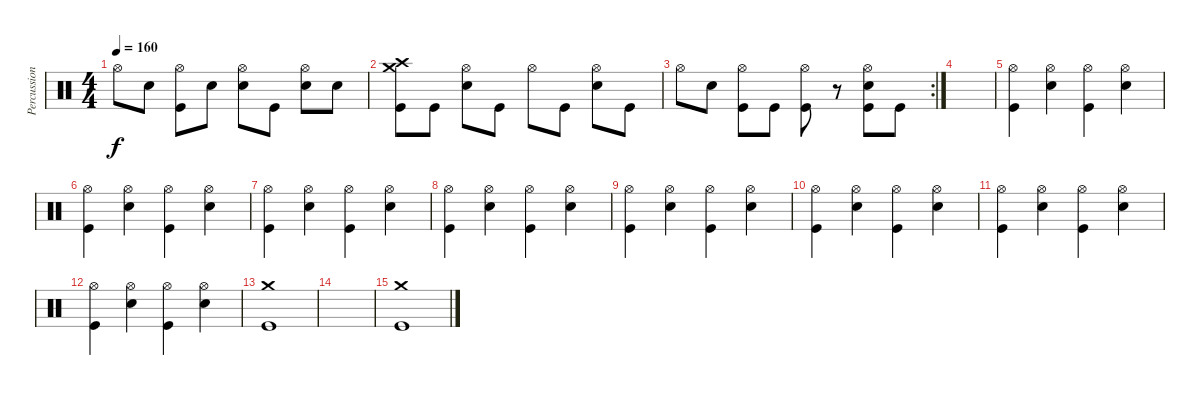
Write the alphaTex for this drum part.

\track ("Percussion" "Percussion") {instrument percussion}
\staff {score}
\articulation defaults
\ts (4 4)
\tempo 160
\clef neutral
\ks c "Hi-Hat (open)".8{dy f} "Snare (hit) 2".8
("Hi-Hat (open)" "Kick (hit)").8 "Snare (hit) 2".8 ("Hi-Hat (open)" "Snare (hit) 2").8 "Kick (hit)".8 ("Hi-Hat (open)" "Snare (hit) 2").8 "Snare (hit) 2".8 |
("Crash medium (hit)" "Crash high (hit)" "Kick (hit)").8 "Kick (hit)".8 ("Hi-Hat (open)" "Snare (hit) 2").8 "Kick (hit)".8 "Hi-Hat (open)".8 "Kick (hit)".8 ("Hi-Hat (open)" "Snare (hit) 2").8 "Kick (hit)".8 |
\rc 2 "Hi-Hat (open)".8 "Snare (hit) 2".8
("Hi-Hat (open)" "Kick (hit)").8 "Kick (hit)".8 ("Hi-Hat (open)" "Kick (hit)").8 r.8 ("Hi-Hat (open)" "Snare (hit) 2" "Kick (hit)").8 "Kick (hit)".8 |
|
("Hi-Hat (open)" "Kick (hit)").4 ("Hi-Hat (open)" "Snare (hit) 2").4 ("Hi-Hat (open)" "Kick (hit)").4 ("Hi-Hat (open)" "Snare (hit) 2").4 |
("Hi-Hat (open)" "Kick (hit)").4 ("Hi-Hat (open)" "Snare (hit) 2").4 ("Hi-Hat (open)" "Kick (hit)").4 ("Hi-Hat (open)" "Snare (hit) 2").4 |
("Hi-Hat (open)" "Kick (hit)").4 ("Hi-Hat (open)" "Snare (hit) 2").4 ("Hi-Hat (open)" "Kick (hit)").4 ("Hi-Hat (open)" "Snare (hit) 2").4 |
("Hi-Hat (open)" "Kick (hit)").4 ("Hi-Hat (open)" "Snare (hit) 2").4 ("Hi-Hat (open)" "Kick (hit)").4 ("Hi-Hat (open)" "Snare (hit) 2").4 |
("Hi-Hat (open)" "Kick (hit)").4 ("Hi-Hat (open)" "Snare (hit) 2").4 ("Hi-Hat (open)" "Kick (hit)").4 ("Hi-Hat (open)" "Snare (hit) 2").4 |
("Hi-Hat (open)" "Kick (hit)").4 ("Hi-Hat (open)" "Snare (hit) 2").4 ("Hi-Hat (open)" "Kick (hit)").4 ("Hi-Hat (open)" "Snare (hit) 2").4 |
("Hi-Hat (open)" "Kick (hit)").4 ("Hi-Hat (open)" "Snare (hit) 2").4 ("Hi-Hat (open)" "Kick (hit)").4 ("Hi-Hat (open)" "Snare (hit) 2").4 |
("Hi-Hat (open)" "Kick (hit)").4 ("Hi-Hat (open)" "Snare (hit) 2").4 ("Hi-Hat (open)" "Kick (hit)").4 ("Hi-Hat (open)" "Snare (hit) 2").4 |
("Crash medium (hit)" "Kick (hit)").1 |
|
("Crash medium (hit)" "Kick (hit)").1
